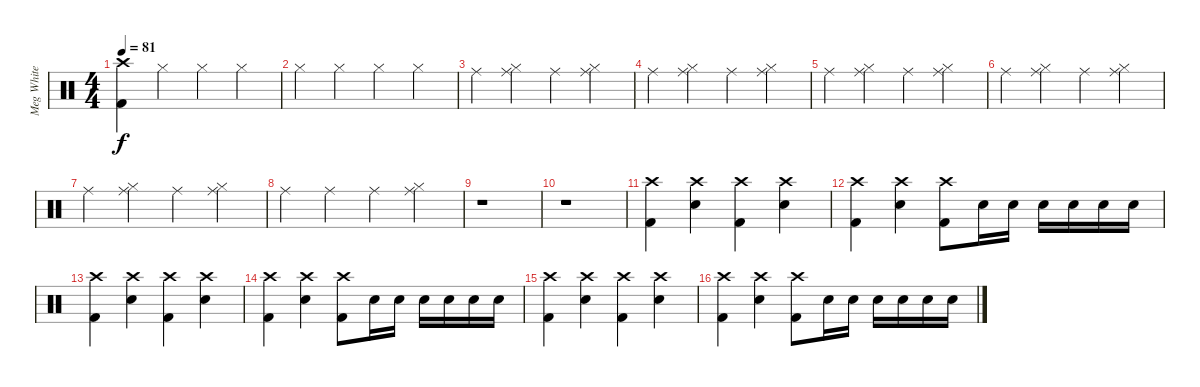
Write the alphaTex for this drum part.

\track ("Meg White" "Meg White") {instrument percussion}
\staff {score}
\articulation defaults
\ts (4 4)
\tempo 81
\clef neutral
\ks c
("Crash high (hit)" "Kick (hit) 2").4{dy f} "Hi-Hat (closed)".4 "Hi-Hat (closed)".4 "Hi-Hat (closed)".4 |
"Hi-Hat (closed)".4 "Hi-Hat (closed)".4 "Hi-Hat (closed)".4 "Hi-Hat (closed)".4 |
"Ride (middle)".4 ("Ride (middle)" "Hi-Hat (closed)").4 "Ride (middle)".4 ("Ride (middle)" "Hi-Hat (closed)").4 |
"Ride (middle)".4 ("Ride (middle)" "Hi-Hat (closed)").4 "Ride (middle)".4 ("Ride (middle)" "Hi-Hat (closed)").4 |
"Ride (middle)".4 ("Ride (middle)" "Hi-Hat (closed)").4 "Ride (middle)".4 ("Ride (middle)" "Hi-Hat (closed)").4 |
"Ride (middle)".4 ("Ride (middle)" "Hi-Hat (closed)").4 "Ride (middle)".4 ("Ride (middle)" "Hi-Hat (closed)").4 |
"Ride (middle)".4 ("Ride (middle)" "Hi-Hat (closed)").4 "Ride (middle)".4 ("Ride (middle)" "Hi-Hat (closed)").4 |
"Ride (middle)".4 "Ride (middle)".4 "Ride (middle)".4 ("Ride (middle)" "Hi-Hat (closed)").4 |
r.1 |
r.1 |
("Crash high (hit)" "Kick (hit) 2").4 ("Crash high (hit)" "Electric Snare (hit)").4 ("Crash high (hit)" "Kick (hit) 2").4 ("Crash high (hit)" "Electric Snare (hit)").4 |
("Crash high (hit)" "Kick (hit) 2").4 ("Crash high (hit)" "Electric Snare (hit)").4 ("Crash high (hit)" "Kick (hit) 2").8 "Electric Snare (hit)".16 "Electric Snare (hit)".16 "Electric Snare (hit)".16 "Electric Snare (hit)".16 "Electric Snare (hit)".16 "Electric Snare (hit)".16 |
("Crash high (hit)" "Kick (hit) 2").4 ("Crash high (hit)" "Electric Snare (hit)").4 ("Crash high (hit)" "Kick (hit) 2").4 ("Crash high (hit)" "Electric Snare (hit)").4 |
("Crash high (hit)" "Kick (hit) 2").4 ("Crash high (hit)" "Electric Snare (hit)").4 ("Crash high (hit)" "Kick (hit) 2").8 "Electric Snare (hit)".16 "Electric Snare (hit)".16 "Electric Snare (hit)".16 "Electric Snare (hit)".16 "Electric Snare (hit)".16 "Electric Snare (hit)".16 |
("Crash high (hit)" "Kick (hit) 2").4 ("Crash high (hit)" "Electric Snare (hit)").4 ("Crash high (hit)" "Kick (hit) 2").4 ("Crash high (hit)" "Electric Snare (hit)").4 |
("Crash high (hit)" "Kick (hit) 2").4 ("Crash high (hit)" "Electric Snare (hit)").4 ("Crash high (hit)" "Kick (hit) 2").8 "Electric Snare (hit)".16 "Electric Snare (hit)".16 "Electric Snare (hit)".16 "Electric Snare (hit)".16 "Electric Snare (hit)".16 "Electric Snare (hit)".16
